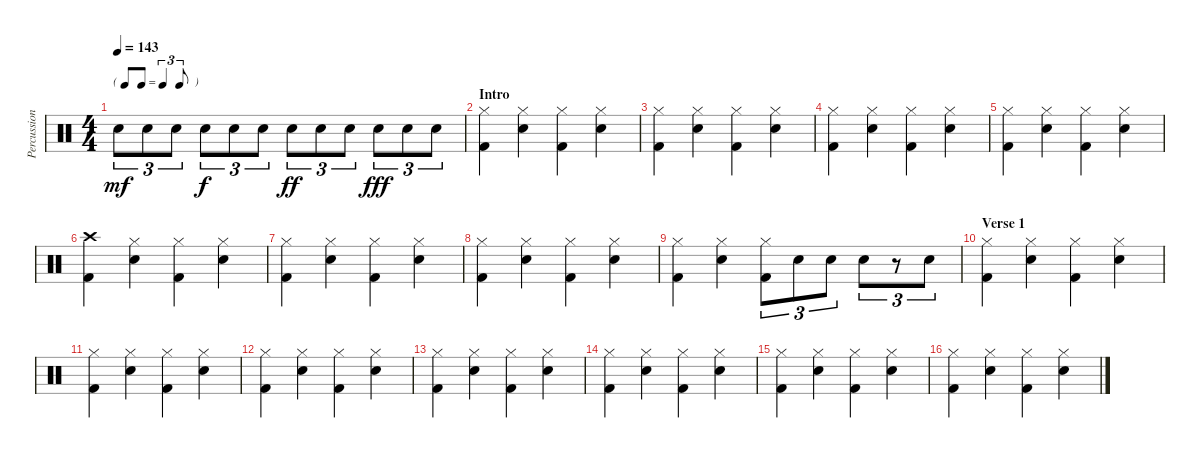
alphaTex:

\track ("Percussion" "Percussion") {instrument percussion}
\staff {score}
\articulation defaults
\ts (4 4)
\tf triplet8th
\tempo 143
\clef neutral
\ks c "Snare (hit) 2".8{tu (3 2) dy mf} "Snare (hit) 2".8{tu (3 2)} "Snare (hit) 2".8{tu (3 2)} "Snare (hit) 2".8{tu (3 2) dy f} "Snare (hit) 2".8{tu (3 2)} "Snare (hit) 2".8{tu (3 2)} "Snare (hit) 2".8{tu (3 2) dy ff} "Snare (hit) 2".8{tu (3 2)} "Snare (hit) 2".8{tu (3 2)} "Snare (hit) 2".8{tu (3 2) dy fff} "Snare (hit) 2".8{tu (3 2)} "Snare (hit) 2".8{tu (3 2)}
|
\section ("" "Intro")
("Hi-Hat (closed)" "Kick (hit) 2").4 ("Hi-Hat (closed)" "Snare (hit) 2").4 ("Hi-Hat (closed)" "Kick (hit) 2").4 ("Hi-Hat (closed)" "Snare (hit) 2").4 |
("Hi-Hat (closed)" "Kick (hit) 2").4 ("Hi-Hat (closed)" "Snare (hit) 2").4 ("Hi-Hat (closed)" "Kick (hit) 2").4 ("Hi-Hat (closed)" "Snare (hit) 2").4 |
("Hi-Hat (closed)" "Kick (hit) 2").4 ("Hi-Hat (closed)" "Snare (hit) 2").4 ("Hi-Hat (closed)" "Kick (hit) 2").4 ("Hi-Hat (closed)" "Snare (hit) 2").4 |
("Hi-Hat (closed)" "Kick (hit) 2").4 ("Hi-Hat (closed)" "Snare (hit) 2").4 ("Hi-Hat (closed)" "Kick (hit) 2").4 ("Hi-Hat (closed)" "Snare (hit) 2").4 |
("Crash high (hit)" "Kick (hit) 2").4 ("Hi-Hat (closed)" "Snare (hit) 2").4 ("Hi-Hat (closed)" "Kick (hit) 2").4 ("Hi-Hat (closed)" "Snare (hit) 2").4 |
("Hi-Hat (closed)" "Kick (hit) 2").4 ("Hi-Hat (closed)" "Snare (hit) 2").4 ("Hi-Hat (closed)" "Kick (hit) 2").4 ("Hi-Hat (closed)" "Snare (hit) 2").4 |
("Hi-Hat (closed)" "Kick (hit) 2").4 ("Hi-Hat (closed)" "Snare (hit) 2").4 ("Hi-Hat (closed)" "Kick (hit) 2").4 ("Hi-Hat (closed)" "Snare (hit) 2").4 |
("Hi-Hat (closed)" "Kick (hit) 2").4 ("Hi-Hat (closed)" "Snare (hit) 2").4 ("Hi-Hat (closed)" "Kick (hit) 2").8{tu (3 2)} "Snare (hit) 2".8{tu (3 2)} "Snare (hit) 2".8{tu (3 2)} "Snare (hit) 2".8{tu (3 2)} r.8{tu (3 2)} "Snare (hit) 2".8{tu (3 2)} |
\section ("" "Verse 1")
("Hi-Hat (closed)" "Kick (hit) 2").4 ("Hi-Hat (closed)" "Snare (hit) 2").4 ("Hi-Hat (closed)" "Kick (hit) 2").4 ("Hi-Hat (closed)" "Snare (hit) 2").4 |
("Hi-Hat (closed)" "Kick (hit) 2").4 ("Hi-Hat (closed)" "Snare (hit) 2").4 ("Hi-Hat (closed)" "Kick (hit) 2").4 ("Hi-Hat (closed)" "Snare (hit) 2").4 |
("Hi-Hat (closed)" "Kick (hit) 2").4 ("Hi-Hat (closed)" "Snare (hit) 2").4 ("Hi-Hat (closed)" "Kick (hit) 2").4 ("Hi-Hat (closed)" "Snare (hit) 2").4 |
("Hi-Hat (closed)" "Kick (hit) 2").4 ("Hi-Hat (closed)" "Snare (hit) 2").4 ("Hi-Hat (closed)" "Kick (hit) 2").4 ("Hi-Hat (closed)" "Snare (hit) 2").4 |
("Hi-Hat (closed)" "Kick (hit) 2").4 ("Hi-Hat (closed)" "Snare (hit) 2").4 ("Hi-Hat (closed)" "Kick (hit) 2").4 ("Hi-Hat (closed)" "Snare (hit) 2").4 |
("Hi-Hat (closed)" "Kick (hit) 2").4 ("Hi-Hat (closed)" "Snare (hit) 2").4 ("Hi-Hat (closed)" "Kick (hit) 2").4 ("Hi-Hat (closed)" "Snare (hit) 2").4 |
("Hi-Hat (closed)" "Kick (hit) 2").4 ("Hi-Hat (closed)" "Snare (hit) 2").4 ("Hi-Hat (closed)" "Kick (hit) 2").4 ("Hi-Hat (closed)" "Snare (hit) 2").4
